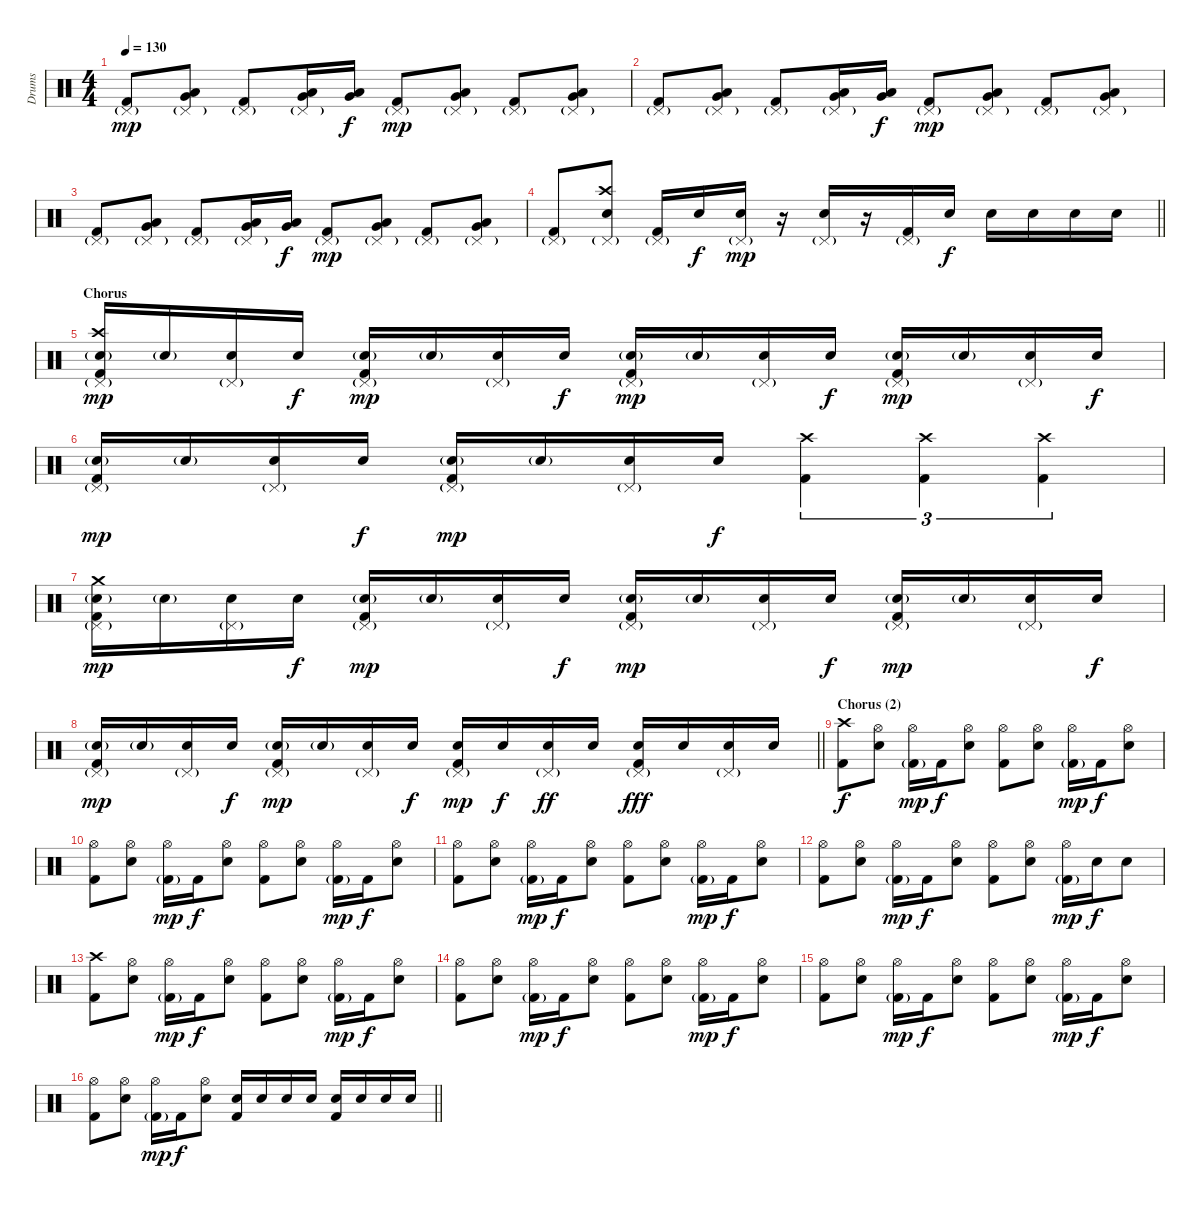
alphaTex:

\track ("Drums" "Drums") {instrument percussion}
\staff {score}
\articulation defaults
\ts (4 4)
\tempo 130
\clef neutral
\ks c
("Pedal Hi-Hat (hit)"{g} "Kick (hit) 2").8{dy mp} ("Pedal Hi-Hat (hit)"{g} "Low Tom (hit)" "Very Low Tom (hit)").8 ("Pedal Hi-Hat (hit)"{g} "Kick (hit) 2").8 ("Pedal Hi-Hat (hit)"{g} "Very Low Tom (hit)" "Low Floor Tom (hit)").16 ("Very Low Tom (hit)" "Low Floor Tom (hit)").16{dy f} ("Pedal Hi-Hat (hit)"{g} "Kick (hit) 2").8{dy mp} ("Pedal Hi-Hat (hit)"{g} "Very Low Tom (hit)" "Low Floor Tom (hit)").8 ("Pedal Hi-Hat (hit)"{g} "Kick (hit) 2").8 ("Pedal Hi-Hat (hit)"{g} "Very Low Tom (hit)" "Low Floor Tom (hit)").8 |
("Pedal Hi-Hat (hit)"{g} "Kick (hit) 2").8 ("Pedal Hi-Hat (hit)"{g} "Low Tom (hit)" "Very Low Tom (hit)").8 ("Pedal Hi-Hat (hit)"{g} "Kick (hit) 2").8 ("Pedal Hi-Hat (hit)"{g} "Very Low Tom (hit)" "Low Floor Tom (hit)").16 ("Very Low Tom (hit)" "Low Floor Tom (hit)").16{dy f} ("Pedal Hi-Hat (hit)"{g} "Kick (hit) 2").8{dy mp} ("Pedal Hi-Hat (hit)"{g} "Very Low Tom (hit)" "Low Floor Tom (hit)").8 ("Pedal Hi-Hat (hit)"{g} "Kick (hit) 2").8 ("Pedal Hi-Hat (hit)"{g} "Very Low Tom (hit)" "Low Floor Tom (hit)").8 |
("Pedal Hi-Hat (hit)"{g} "Kick (hit) 2").8 ("Pedal Hi-Hat (hit)"{g} "Low Tom (hit)" "Very Low Tom (hit)").8 ("Pedal Hi-Hat (hit)"{g} "Kick (hit) 2").8 ("Pedal Hi-Hat (hit)"{g} "Very Low Tom (hit)" "Low Floor Tom (hit)").16 ("Very Low Tom (hit)" "Low Floor Tom (hit)").16{dy f} ("Pedal Hi-Hat (hit)"{g} "Kick (hit) 2").8{dy mp} ("Pedal Hi-Hat (hit)"{g} "Very Low Tom (hit)" "Low Floor Tom (hit)").8 ("Pedal Hi-Hat (hit)"{g} "Kick (hit) 2").8 ("Pedal Hi-Hat (hit)"{g} "Very Low Tom (hit)" "Low Floor Tom (hit)").8 |
\barLineRight lightlight
("Pedal Hi-Hat (hit)"{g} "Kick (hit) 2").8 ("Pedal Hi-Hat (hit)"{g} "Crash high (hit)" "Electric Snare (hit)").8 ("Pedal Hi-Hat (hit)"{g} "Kick (hit) 2").16 "Electric Snare (hit)".16{dy f} ("Pedal Hi-Hat (hit)"{g} "Electric Snare (hit)").16{dy mp} r.16 ("Pedal Hi-Hat (hit)"{g} "Electric Snare (hit)").16 r.16 ("Pedal Hi-Hat (hit)"{g} "Kick (hit) 2").16 "Electric Snare (hit)".16{dy f} "Electric Snare (hit)".16 "Electric Snare (hit)".16 "Electric Snare (hit)".16 "Electric Snare (hit)".16 |
\section ("" "Chorus")
("Pedal Hi-Hat (hit)"{g} "Crash high (hit)" "Electric Snare (hit)"{g} "Kick (hit) 2").16{dy mp} "Electric Snare (hit)"{g}.16 ("Pedal Hi-Hat (hit)"{g} "Electric Snare (hit)").16 "Electric Snare (hit)".16{dy f} ("Pedal Hi-Hat (hit)"{g} "Electric Snare (hit)"{g} "Kick (hit) 2").16{dy mp} "Electric Snare (hit)"{g}.16 ("Pedal Hi-Hat (hit)"{g} "Electric Snare (hit)").16 "Electric Snare (hit)".16{dy f} ("Pedal Hi-Hat (hit)"{g} "Electric Snare (hit)"{g} "Kick (hit) 2").16{dy mp} "Electric Snare (hit)"{g}.16 ("Pedal Hi-Hat (hit)"{g} "Electric Snare (hit)").16 "Electric Snare (hit)".16{dy f} ("Pedal Hi-Hat (hit)"{g} "Electric Snare (hit)"{g} "Kick (hit) 2").16{dy mp} "Electric Snare (hit)"{g}.16 ("Pedal Hi-Hat (hit)"{g} "Electric Snare (hit)").16 "Electric Snare (hit)".16{dy f} |
("Pedal Hi-Hat (hit)"{g} "Electric Snare (hit)"{g} "Kick (hit) 2").16{dy mp} "Electric Snare (hit)"{g}.16 ("Pedal Hi-Hat (hit)"{g} "Electric Snare (hit)").16 "Electric Snare (hit)".16{dy f} ("Pedal Hi-Hat (hit)"{g} "Electric Snare (hit)"{g} "Kick (hit) 2").16{dy mp} "Electric Snare (hit)"{g}.16 ("Pedal Hi-Hat (hit)"{g} "Electric Snare (hit)").16 "Electric Snare (hit)".16{dy f} ("Crash high (hit)" "Kick (hit) 2").4{tu (3 2)} ("Crash high (hit)" "Kick (hit) 2").4{tu (3 2)} ("Crash high (hit)" "Kick (hit) 2").4{tu (3 2)} |
("Pedal Hi-Hat (hit)"{g} "Crash medium (hit)" "Electric Snare (hit)"{g} "Kick (hit) 2").16{dy mp} "Electric Snare (hit)"{g}.16 ("Pedal Hi-Hat (hit)"{g} "Electric Snare (hit)").16 "Electric Snare (hit)".16{dy f} ("Pedal Hi-Hat (hit)"{g} "Electric Snare (hit)"{g} "Kick (hit) 2").16{dy mp} "Electric Snare (hit)"{g}.16 ("Pedal Hi-Hat (hit)"{g} "Electric Snare (hit)").16 "Electric Snare (hit)".16{dy f} ("Pedal Hi-Hat (hit)"{g} "Electric Snare (hit)"{g} "Kick (hit) 2").16{dy mp} "Electric Snare (hit)"{g}.16 ("Pedal Hi-Hat (hit)"{g} "Electric Snare (hit)").16 "Electric Snare (hit)".16{dy f} ("Pedal Hi-Hat (hit)"{g} "Electric Snare (hit)"{g} "Kick (hit) 2").16{dy mp} "Electric Snare (hit)"{g}.16 ("Pedal Hi-Hat (hit)"{g} "Electric Snare (hit)").16 "Electric Snare (hit)".16{dy f} |
\barLineRight lightlight
("Pedal Hi-Hat (hit)"{g} "Electric Snare (hit)"{g} "Kick (hit) 2").16{dy mp} "Electric Snare (hit)"{g}.16 ("Pedal Hi-Hat (hit)"{g} "Electric Snare (hit)").16 "Electric Snare (hit)".16{dy f} ("Pedal Hi-Hat (hit)"{g} "Electric Snare (hit)"{g} "Kick (hit) 2").16{dy mp} "Electric Snare (hit)"{g}.16 ("Pedal Hi-Hat (hit)"{g} "Electric Snare (hit)").16 "Electric Snare (hit)".16{dy f} ("Pedal Hi-Hat (hit)"{g} "Electric Snare (hit)" "Kick (hit) 2").16{dy mp} "Electric Snare (hit)".16{dy f} ("Pedal Hi-Hat (hit)"{g} "Electric Snare (hit)").16{dy ff} "Electric Snare (hit)".16 ("Pedal Hi-Hat (hit)"{g} "Electric Snare (hit)" "Kick (hit) 2").16{dy fff} "Electric Snare (hit)".16 ("Pedal Hi-Hat (hit)"{g} "Electric Snare (hit)").16 "Electric Snare (hit)".16 |
\section ("" "Chorus (2)")
("Crash high (hit)" "Kick (hit) 2").8{dy f} ("Hi-Hat (open)" "Electric Snare (hit)").8 ("Hi-Hat (open)" "Kick (hit) 2"{g}).16{dy mp} "Kick (hit) 2".16{dy f} ("Hi-Hat (open)" "Electric Snare (hit)").8 ("Hi-Hat (open)" "Kick (hit) 2").8 ("Hi-Hat (open)" "Electric Snare (hit)").8 ("Hi-Hat (open)" "Kick (hit) 2"{g}).16{dy mp} "Kick (hit) 2".16{dy f} ("Hi-Hat (open)" "Electric Snare (hit)").8 |
("Hi-Hat (open)" "Kick (hit) 2").8 ("Hi-Hat (open)" "Electric Snare (hit)").8 ("Hi-Hat (open)" "Kick (hit) 2"{g}).16{dy mp} "Kick (hit) 2".16{dy f} ("Hi-Hat (open)" "Electric Snare (hit)").8 ("Hi-Hat (open)" "Kick (hit) 2").8 ("Hi-Hat (open)" "Electric Snare (hit)").8 ("Hi-Hat (open)" "Kick (hit) 2"{g}).16{dy mp} "Kick (hit) 2".16{dy f} ("Hi-Hat (open)" "Electric Snare (hit)").8 |
("Hi-Hat (open)" "Kick (hit) 2").8 ("Hi-Hat (open)" "Electric Snare (hit)").8 ("Hi-Hat (open)" "Kick (hit) 2"{g}).16{dy mp} "Kick (hit) 2".16{dy f} ("Hi-Hat (open)" "Electric Snare (hit)").8 ("Hi-Hat (open)" "Kick (hit) 2").8 ("Hi-Hat (open)" "Electric Snare (hit)").8 ("Hi-Hat (open)" "Kick (hit) 2"{g}).16{dy mp} "Kick (hit) 2".16{dy f} ("Hi-Hat (open)" "Electric Snare (hit)").8 |
("Hi-Hat (open)" "Kick (hit) 2").8 ("Hi-Hat (open)" "Electric Snare (hit)").8 ("Hi-Hat (open)" "Kick (hit) 2"{g}).16{dy mp} "Kick (hit) 2".16{dy f} ("Hi-Hat (open)" "Electric Snare (hit)").8 ("Hi-Hat (open)" "Kick (hit) 2").8 ("Hi-Hat (open)" "Electric Snare (hit)").8 ("Hi-Hat (open)" "Kick (hit) 2"{g}).16{dy mp} "Electric Snare (hit)".16{dy f} "Electric Snare (hit)".8 |
("Crash high (hit)" "Kick (hit) 2").8 ("Hi-Hat (open)" "Electric Snare (hit)").8 ("Hi-Hat (open)" "Kick (hit) 2"{g}).16{dy mp} "Kick (hit) 2".16{dy f} ("Hi-Hat (open)" "Electric Snare (hit)").8 ("Hi-Hat (open)" "Kick (hit) 2").8 ("Hi-Hat (open)" "Electric Snare (hit)").8 ("Hi-Hat (open)" "Kick (hit) 2"{g}).16{dy mp} "Kick (hit) 2".16{dy f} ("Hi-Hat (open)" "Electric Snare (hit)").8 |
("Hi-Hat (open)" "Kick (hit) 2").8 ("Hi-Hat (open)" "Electric Snare (hit)").8 ("Hi-Hat (open)" "Kick (hit) 2"{g}).16{dy mp} "Kick (hit) 2".16{dy f} ("Hi-Hat (open)" "Electric Snare (hit)").8 ("Hi-Hat (open)" "Kick (hit) 2").8 ("Hi-Hat (open)" "Electric Snare (hit)").8 ("Hi-Hat (open)" "Kick (hit) 2"{g}).16{dy mp} "Kick (hit) 2".16{dy f} ("Hi-Hat (open)" "Electric Snare (hit)").8 |
("Hi-Hat (open)" "Kick (hit) 2").8 ("Hi-Hat (open)" "Electric Snare (hit)").8 ("Hi-Hat (open)" "Kick (hit) 2"{g}).16{dy mp} "Kick (hit) 2".16{dy f} ("Hi-Hat (open)" "Electric Snare (hit)").8 ("Hi-Hat (open)" "Kick (hit) 2").8 ("Hi-Hat (open)" "Electric Snare (hit)").8 ("Hi-Hat (open)" "Kick (hit) 2"{g}).16{dy mp} "Kick (hit) 2".16{dy f} ("Hi-Hat (open)" "Electric Snare (hit)").8 |
\barLineRight lightlight
("Hi-Hat (open)" "Kick (hit) 2").8 ("Hi-Hat (open)" "Electric Snare (hit)").8 ("Hi-Hat (open)" "Kick (hit) 2"{g}).16{dy mp} "Kick (hit) 2".16{dy f} ("Hi-Hat (open)" "Electric Snare (hit)").8 ("Electric Snare (hit)" "Kick (hit) 2").16 "Electric Snare (hit)".16 "Electric Snare (hit)".16 "Electric Snare (hit)".16 ("Electric Snare (hit)" "Kick (hit) 2").16 "Electric Snare (hit)".16 "Electric Snare (hit)".16 "Electric Snare (hit)".16
